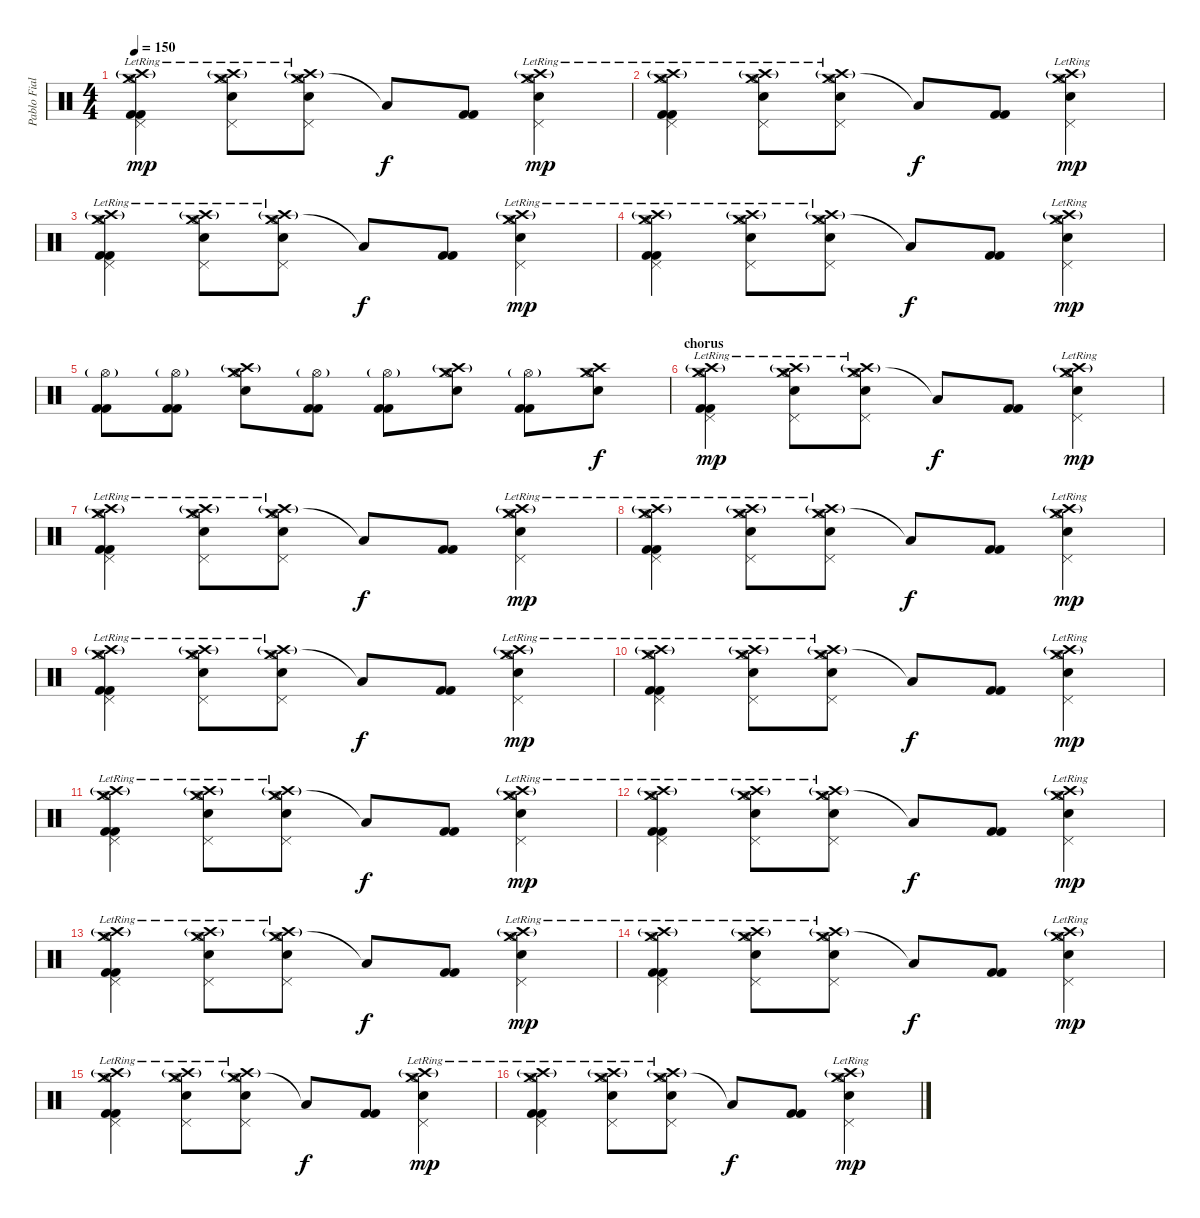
\track ("Pablo Fiallo" "Pablo Fial") {instrument percussion}
\staff {score}
\articulation defaults
\ts (4 4)
\tempo 150
\clef neutral
\ks c
("Crash medium (hit)" "Crash high (hit)"{g} "Pedal Hi-Hat (hit)" "Hi-Hat (open)"{lr} "Kick (hit) 2" "Kick (hit) 2").4{dy mp} ("Crash medium (hit)" "Crash high (hit)"{g} "Pedal Hi-Hat (hit)" "Hi-Hat (open)"{lr} "Snare (hit) 2").8 ("Crash medium (hit)" "Crash high (hit)"{g} "Pedal Hi-Hat (hit)" "Hi-Hat (open)"{lr} "Snare (hit) 2").8 "Low Floor Tom (hit)"{t}.8{dy f} ("Kick (hit) 2" "Kick (hit) 2").8 ("Crash medium (hit)" "Crash high (hit)"{g} "Pedal Hi-Hat (hit)" "Hi-Hat (open)"{lr} "Snare (hit) 2").4{dy mp} |
("Crash medium (hit)" "Crash high (hit)"{g} "Pedal Hi-Hat (hit)" "Hi-Hat (open)"{lr} "Kick (hit) 2" "Kick (hit) 2").4 ("Crash medium (hit)" "Crash high (hit)"{g} "Pedal Hi-Hat (hit)" "Hi-Hat (open)"{lr} "Snare (hit) 2").8 ("Crash medium (hit)" "Crash high (hit)"{g} "Pedal Hi-Hat (hit)" "Hi-Hat (open)"{lr} "Snare (hit) 2").8 "Low Floor Tom (hit)"{t}.8{dy f} ("Kick (hit) 2" "Kick (hit) 2").8 ("Crash medium (hit)" "Crash high (hit)"{g} "Pedal Hi-Hat (hit)" "Hi-Hat (open)"{lr} "Snare (hit) 2").4{dy mp} |
("Crash medium (hit)" "Crash high (hit)"{g} "Pedal Hi-Hat (hit)" "Hi-Hat (open)"{lr} "Kick (hit) 2" "Kick (hit) 2").4 ("Crash medium (hit)" "Crash high (hit)"{g} "Pedal Hi-Hat (hit)" "Hi-Hat (open)"{lr} "Snare (hit) 2").8 ("Crash medium (hit)" "Crash high (hit)"{g} "Pedal Hi-Hat (hit)" "Hi-Hat (open)"{lr} "Snare (hit) 2").8 "Low Floor Tom (hit)"{t}.8{dy f} ("Kick (hit) 2" "Kick (hit) 2").8 ("Crash medium (hit)" "Crash high (hit)"{g} "Pedal Hi-Hat (hit)" "Hi-Hat (open)"{lr} "Snare (hit) 2").4{dy mp} |
("Crash medium (hit)" "Crash high (hit)"{g} "Pedal Hi-Hat (hit)" "Hi-Hat (open)"{lr} "Kick (hit) 2" "Kick (hit) 2").4 ("Crash medium (hit)" "Crash high (hit)"{g} "Pedal Hi-Hat (hit)" "Hi-Hat (open)"{lr} "Snare (hit) 2").8 ("Crash medium (hit)" "Crash high (hit)"{g} "Pedal Hi-Hat (hit)" "Hi-Hat (open)"{lr} "Snare (hit) 2").8 "Low Floor Tom (hit)"{t}.8{dy f} ("Kick (hit) 2" "Kick (hit) 2").8 ("Crash medium (hit)" "Crash high (hit)"{g} "Pedal Hi-Hat (hit)" "Hi-Hat (open)"{lr} "Snare (hit) 2").4{dy mp} |
("Hi-Hat (open)"{g} "Kick (hit) 2" "Kick (hit) 2").8 ("Hi-Hat (open)"{g} "Kick (hit) 2" "Kick (hit) 2").8 ("Crash high (hit)"{g} "Hi-Hat (open)" "Crash medium (hit)" "Snare (hit) 2").8 ("Hi-Hat (open)"{g} "Kick (hit) 2" "Kick (hit) 2").8 ("Hi-Hat (open)"{g} "Kick (hit) 2" "Kick (hit) 2").8 ("Crash high (hit)"{g} "Hi-Hat (open)" "Crash medium (hit)" "Snare (hit) 2").8 ("Hi-Hat (open)"{g} "Kick (hit) 2" "Kick (hit) 2").8 ("Crash high (hit)" "Hi-Hat (open)" "Crash medium (hit)" "Snare (hit) 2").8{dy f} |
\section ("" "chorus")
("Crash medium (hit)" "Crash high (hit)"{g} "Pedal Hi-Hat (hit)" "Hi-Hat (open)"{lr} "Kick (hit) 2" "Kick (hit) 2").4{dy mp} ("Crash medium (hit)" "Crash high (hit)"{g} "Pedal Hi-Hat (hit)" "Hi-Hat (open)"{lr} "Snare (hit) 2").8 ("Crash medium (hit)" "Crash high (hit)"{g} "Pedal Hi-Hat (hit)" "Hi-Hat (open)"{lr} "Snare (hit) 2").8 "Low Floor Tom (hit)"{t}.8{dy f} ("Kick (hit) 2" "Kick (hit) 2").8 ("Crash medium (hit)" "Crash high (hit)"{g} "Pedal Hi-Hat (hit)" "Hi-Hat (open)"{lr} "Snare (hit) 2").4{dy mp} |
("Crash medium (hit)" "Crash high (hit)"{g} "Pedal Hi-Hat (hit)" "Hi-Hat (open)"{lr} "Kick (hit) 2" "Kick (hit) 2").4 ("Crash medium (hit)" "Crash high (hit)"{g} "Pedal Hi-Hat (hit)" "Hi-Hat (open)"{lr} "Snare (hit) 2").8 ("Crash medium (hit)" "Crash high (hit)"{g} "Pedal Hi-Hat (hit)" "Hi-Hat (open)"{lr} "Snare (hit) 2").8 "Low Floor Tom (hit)"{t}.8{dy f} ("Kick (hit) 2" "Kick (hit) 2").8 ("Crash medium (hit)" "Crash high (hit)"{g} "Pedal Hi-Hat (hit)" "Hi-Hat (open)"{lr} "Snare (hit) 2").4{dy mp} |
("Crash medium (hit)" "Crash high (hit)"{g} "Pedal Hi-Hat (hit)" "Hi-Hat (open)"{lr} "Kick (hit) 2" "Kick (hit) 2").4 ("Crash medium (hit)" "Crash high (hit)"{g} "Pedal Hi-Hat (hit)" "Hi-Hat (open)"{lr} "Snare (hit) 2").8 ("Crash medium (hit)" "Crash high (hit)"{g} "Pedal Hi-Hat (hit)" "Hi-Hat (open)"{lr} "Snare (hit) 2").8 "Low Floor Tom (hit)"{t}.8{dy f} ("Kick (hit) 2" "Kick (hit) 2").8 ("Crash medium (hit)" "Crash high (hit)"{g} "Pedal Hi-Hat (hit)" "Hi-Hat (open)"{lr} "Snare (hit) 2").4{dy mp} |
("Crash medium (hit)" "Crash high (hit)"{g} "Pedal Hi-Hat (hit)" "Hi-Hat (open)"{lr} "Kick (hit) 2" "Kick (hit) 2").4 ("Crash medium (hit)" "Crash high (hit)"{g} "Pedal Hi-Hat (hit)" "Hi-Hat (open)"{lr} "Snare (hit) 2").8 ("Crash medium (hit)" "Crash high (hit)"{g} "Pedal Hi-Hat (hit)" "Hi-Hat (open)"{lr} "Snare (hit) 2").8 "Low Floor Tom (hit)"{t}.8{dy f} ("Kick (hit) 2" "Kick (hit) 2").8 ("Crash medium (hit)" "Crash high (hit)"{g} "Pedal Hi-Hat (hit)" "Hi-Hat (open)"{lr} "Snare (hit) 2").4{dy mp} |
("Crash medium (hit)" "Crash high (hit)"{g} "Pedal Hi-Hat (hit)" "Hi-Hat (open)"{lr} "Kick (hit) 2" "Kick (hit) 2").4 ("Crash medium (hit)" "Crash high (hit)"{g} "Pedal Hi-Hat (hit)" "Hi-Hat (open)"{lr} "Snare (hit) 2").8 ("Crash medium (hit)" "Crash high (hit)"{g} "Pedal Hi-Hat (hit)" "Hi-Hat (open)"{lr} "Snare (hit) 2").8 "Low Floor Tom (hit)"{t}.8{dy f} ("Kick (hit) 2" "Kick (hit) 2").8 ("Crash medium (hit)" "Crash high (hit)"{g} "Pedal Hi-Hat (hit)" "Hi-Hat (open)"{lr} "Snare (hit) 2").4{dy mp} |
("Crash medium (hit)" "Crash high (hit)"{g} "Pedal Hi-Hat (hit)" "Hi-Hat (open)"{lr} "Kick (hit) 2" "Kick (hit) 2").4 ("Crash medium (hit)" "Crash high (hit)"{g} "Pedal Hi-Hat (hit)" "Hi-Hat (open)"{lr} "Snare (hit) 2").8 ("Crash medium (hit)" "Crash high (hit)"{g} "Pedal Hi-Hat (hit)" "Hi-Hat (open)"{lr} "Snare (hit) 2").8 "Low Floor Tom (hit)"{t}.8{dy f} ("Kick (hit) 2" "Kick (hit) 2").8 ("Crash medium (hit)" "Crash high (hit)"{g} "Pedal Hi-Hat (hit)" "Hi-Hat (open)"{lr} "Snare (hit) 2").4{dy mp} |
("Crash medium (hit)" "Crash high (hit)"{g} "Pedal Hi-Hat (hit)" "Hi-Hat (open)"{lr} "Kick (hit) 2" "Kick (hit) 2").4 ("Crash medium (hit)" "Crash high (hit)"{g} "Pedal Hi-Hat (hit)" "Hi-Hat (open)"{lr} "Snare (hit) 2").8 ("Crash medium (hit)" "Crash high (hit)"{g} "Pedal Hi-Hat (hit)" "Hi-Hat (open)"{lr} "Snare (hit) 2").8 "Low Floor Tom (hit)"{t}.8{dy f} ("Kick (hit) 2" "Kick (hit) 2").8 ("Crash medium (hit)" "Crash high (hit)"{g} "Pedal Hi-Hat (hit)" "Hi-Hat (open)"{lr} "Snare (hit) 2").4{dy mp} |
("Crash medium (hit)" "Crash high (hit)"{g} "Pedal Hi-Hat (hit)" "Hi-Hat (open)"{lr} "Kick (hit) 2" "Kick (hit) 2").4 ("Crash medium (hit)" "Crash high (hit)"{g} "Pedal Hi-Hat (hit)" "Hi-Hat (open)"{lr} "Snare (hit) 2").8 ("Crash medium (hit)" "Crash high (hit)"{g} "Pedal Hi-Hat (hit)" "Hi-Hat (open)"{lr} "Snare (hit) 2").8 "Low Floor Tom (hit)"{t}.8{dy f} ("Kick (hit) 2" "Kick (hit) 2").8 ("Crash medium (hit)" "Crash high (hit)"{g} "Pedal Hi-Hat (hit)" "Hi-Hat (open)"{lr} "Snare (hit) 2").4{dy mp} |
("Crash medium (hit)" "Crash high (hit)"{g} "Pedal Hi-Hat (hit)" "Hi-Hat (open)"{lr} "Kick (hit) 2" "Kick (hit) 2").4 ("Crash medium (hit)" "Crash high (hit)"{g} "Pedal Hi-Hat (hit)" "Hi-Hat (open)"{lr} "Snare (hit) 2").8 ("Crash medium (hit)" "Crash high (hit)"{g} "Pedal Hi-Hat (hit)" "Hi-Hat (open)"{lr} "Snare (hit) 2").8 "Low Floor Tom (hit)"{t}.8{dy f} ("Kick (hit) 2" "Kick (hit) 2").8 ("Crash medium (hit)" "Crash high (hit)"{g} "Pedal Hi-Hat (hit)" "Hi-Hat (open)"{lr} "Snare (hit) 2").4{dy mp} |
("Crash medium (hit)" "Crash high (hit)"{g} "Pedal Hi-Hat (hit)" "Hi-Hat (open)"{lr} "Kick (hit) 2" "Kick (hit) 2").4 ("Crash medium (hit)" "Crash high (hit)"{g} "Pedal Hi-Hat (hit)" "Hi-Hat (open)"{lr} "Snare (hit) 2").8 ("Crash medium (hit)" "Crash high (hit)"{g} "Pedal Hi-Hat (hit)" "Hi-Hat (open)"{lr} "Snare (hit) 2").8 "Low Floor Tom (hit)"{t}.8{dy f} ("Kick (hit) 2" "Kick (hit) 2").8 ("Crash medium (hit)" "Crash high (hit)"{g} "Pedal Hi-Hat (hit)" "Hi-Hat (open)"{lr} "Snare (hit) 2").4{dy mp} |
("Crash medium (hit)" "Crash high (hit)"{g} "Pedal Hi-Hat (hit)" "Hi-Hat (open)"{lr} "Kick (hit) 2" "Kick (hit) 2").4 ("Crash medium (hit)" "Crash high (hit)"{g} "Pedal Hi-Hat (hit)" "Hi-Hat (open)"{lr} "Snare (hit) 2").8 ("Crash medium (hit)" "Crash high (hit)"{g} "Pedal Hi-Hat (hit)" "Hi-Hat (open)"{lr} "Snare (hit) 2").8 "Low Floor Tom (hit)"{t}.8{dy f} ("Kick (hit) 2" "Kick (hit) 2").8 ("Crash medium (hit)" "Crash high (hit)"{g} "Pedal Hi-Hat (hit)" "Hi-Hat (open)"{lr} "Snare (hit) 2").4{dy mp}
